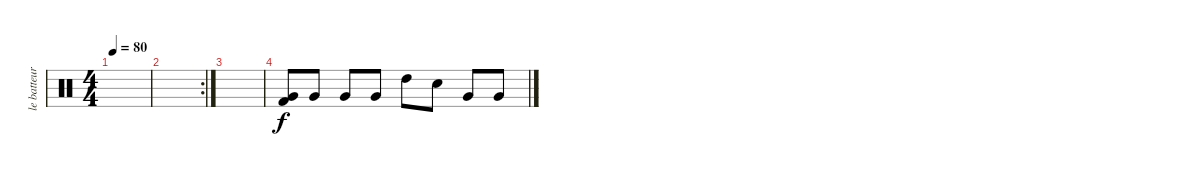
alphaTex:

\track ("le batteur" "le batteur") {instrument percussion}
\staff {score}
\articulation defaults
\ts (4 4)
\tempo 80
\clef neutral
\ks c
|
\rc 2
|
|
("Kick (hit) 2" "Very Low Tom (hit)").8 "Very Low Tom (hit)".8 "Very Low Tom (hit)".8 "Very Low Tom (hit)".8 "High Tom (hit)".8 "Snare (hit) 2".8 "Very Low Tom (hit)".8 "Very Low Tom (hit)".8
